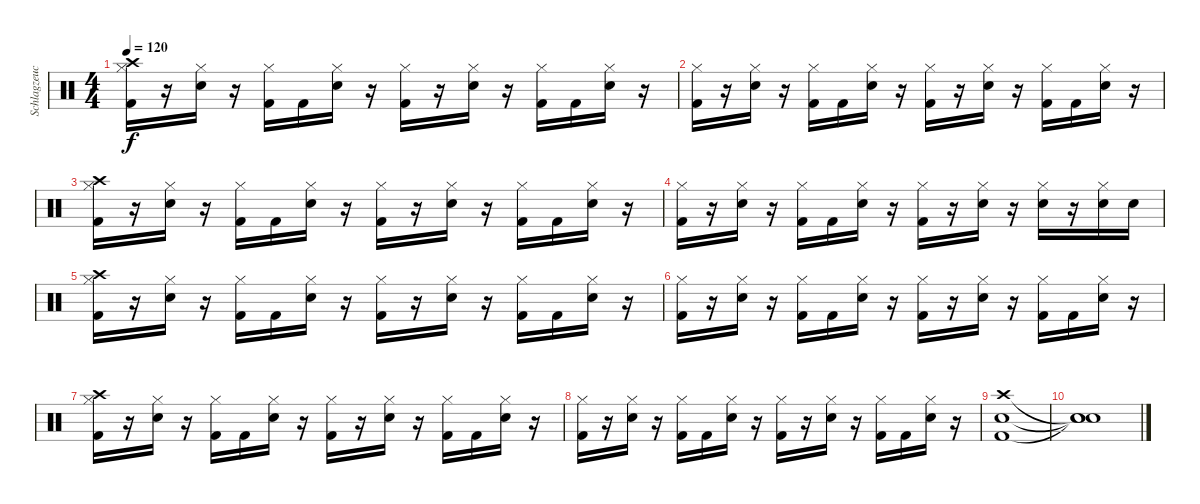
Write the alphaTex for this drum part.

\track ("Schlagzeuch" "Schlagzeuc") {instrument percussion}
\staff {score}
\articulation defaults
\ts (4 4)
\tempo 120
\clef neutral
\ks c
("Hi-Hat (closed)" "Kick (hit) 2" "Crash high (hit)").16{dy f} r.16 ("Hi-Hat (closed)" "Snare (hit) 2").16 r.16 ("Hi-Hat (closed)" "Kick (hit) 2").16 "Kick (hit) 2".16 ("Hi-Hat (closed)" "Snare (hit) 2").16 r.16 ("Hi-Hat (closed)" "Kick (hit) 2").16 r.16 ("Hi-Hat (closed)" "Snare (hit) 2").16 r.16 ("Hi-Hat (closed)" "Kick (hit) 2").16 "Kick (hit) 2".16 ("Hi-Hat (closed)" "Snare (hit) 2").16 r.16 |
("Hi-Hat (closed)" "Kick (hit) 2").16 r.16 ("Hi-Hat (closed)" "Snare (hit) 2").16 r.16 ("Hi-Hat (closed)" "Kick (hit) 2").16 "Kick (hit) 2".16 ("Hi-Hat (closed)" "Snare (hit) 2").16 r.16 ("Hi-Hat (closed)" "Kick (hit) 2").16 r.16 ("Hi-Hat (closed)" "Snare (hit) 2").16 r.16 ("Hi-Hat (closed)" "Kick (hit) 2").16 "Kick (hit) 2".16 ("Hi-Hat (closed)" "Snare (hit) 2").16 r.16 |
("Hi-Hat (closed)" "Kick (hit) 2" "Crash high (hit)").16 r.16 ("Hi-Hat (closed)" "Snare (hit) 2").16 r.16 ("Hi-Hat (closed)" "Kick (hit) 2").16 "Kick (hit) 2".16 ("Hi-Hat (closed)" "Snare (hit) 2").16 r.16 ("Hi-Hat (closed)" "Kick (hit) 2").16 r.16 ("Hi-Hat (closed)" "Snare (hit) 2").16 r.16 ("Hi-Hat (closed)" "Kick (hit) 2").16 "Kick (hit) 2".16 ("Hi-Hat (closed)" "Snare (hit) 2").16 r.16 |
("Hi-Hat (closed)" "Kick (hit) 2").16 r.16 ("Hi-Hat (closed)" "Snare (hit) 2").16 r.16 ("Hi-Hat (closed)" "Kick (hit) 2").16 "Kick (hit) 2".16 ("Hi-Hat (closed)" "Snare (hit) 2").16 r.16 ("Hi-Hat (closed)" "Kick (hit) 2").16 r.16 ("Hi-Hat (closed)" "Snare (hit) 2").16 r.16 ("Hi-Hat (closed)" "Snare (hit) 2").16 r.16 ("Hi-Hat (closed)" "Snare (hit) 2").16 "Snare (hit) 2".16 |
("Hi-Hat (closed)" "Kick (hit) 2" "Crash high (hit)").16 r.16 ("Hi-Hat (closed)" "Snare (hit) 2").16 r.16 ("Hi-Hat (closed)" "Kick (hit) 2").16 "Kick (hit) 2".16 ("Hi-Hat (closed)" "Snare (hit) 2").16 r.16 ("Hi-Hat (closed)" "Kick (hit) 2").16 r.16 ("Hi-Hat (closed)" "Snare (hit) 2").16 r.16 ("Hi-Hat (closed)" "Kick (hit) 2").16 "Kick (hit) 2".16 ("Hi-Hat (closed)" "Snare (hit) 2").16 r.16 |
("Hi-Hat (closed)" "Kick (hit) 2").16 r.16 ("Hi-Hat (closed)" "Snare (hit) 2").16 r.16 ("Hi-Hat (closed)" "Kick (hit) 2").16 "Kick (hit) 2".16 ("Hi-Hat (closed)" "Snare (hit) 2").16 r.16 ("Hi-Hat (closed)" "Kick (hit) 2").16 r.16 ("Hi-Hat (closed)" "Snare (hit) 2").16 r.16 ("Hi-Hat (closed)" "Kick (hit) 2").16 "Kick (hit) 2".16 ("Hi-Hat (closed)" "Snare (hit) 2").16 r.16 |
("Hi-Hat (closed)" "Kick (hit) 2" "Crash high (hit)").16 r.16 ("Hi-Hat (closed)" "Snare (hit) 2").16 r.16 ("Hi-Hat (closed)" "Kick (hit) 2").16 "Kick (hit) 2".16 ("Hi-Hat (closed)" "Snare (hit) 2").16 r.16 ("Hi-Hat (closed)" "Kick (hit) 2").16 r.16 ("Hi-Hat (closed)" "Snare (hit) 2").16 r.16 ("Hi-Hat (closed)" "Kick (hit) 2").16 "Kick (hit) 2".16 ("Hi-Hat (closed)" "Snare (hit) 2").16 r.16 |
("Hi-Hat (closed)" "Kick (hit) 2").16 r.16 ("Hi-Hat (closed)" "Snare (hit) 2").16 r.16 ("Hi-Hat (closed)" "Kick (hit) 2").16 "Kick (hit) 2".16 ("Hi-Hat (closed)" "Snare (hit) 2").16 r.16 ("Hi-Hat (closed)" "Kick (hit) 2").16 r.16 ("Hi-Hat (closed)" "Snare (hit) 2").16 r.16 ("Hi-Hat (closed)" "Kick (hit) 2").16 "Kick (hit) 2".16 ("Hi-Hat (closed)" "Snare (hit) 2").16 r.16 |
("Kick (hit) 2" "Snare (hit) 2" "Crash high (hit)").1 |
("Snare (hit)"{t} "Snare (hit)"{t} "Snare (hit)"{t}).1
